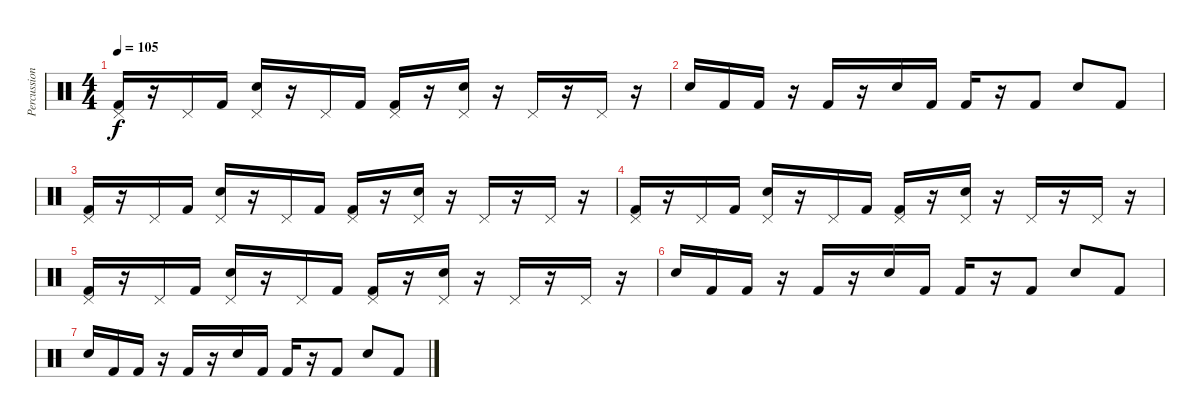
\track ("Percussion" "Percussion") {instrument percussion}
\staff {score}
\articulation defaults
\ts (4 4)
\tempo 105
\clef neutral
\ks c
("Pedal Hi-Hat (hit)" "Kick (hit) 2").16{dy f} r.16 "Pedal Hi-Hat (hit)".16 "Kick (hit) 2".16 ("Pedal Hi-Hat (hit)" "Electric Snare (hit)").16 r.16 "Pedal Hi-Hat (hit)".16 "Kick (hit) 2".16 ("Pedal Hi-Hat (hit)" "Kick (hit) 2").16 r.16 ("Pedal Hi-Hat (hit)" "Electric Snare (hit)").16 r.16 "Pedal Hi-Hat (hit)".16 r.16 "Pedal Hi-Hat (hit)".16 r.16 |
"Electric Snare (hit)".16 "Kick (hit) 2".16 "Kick (hit) 2".16 r.16 "Kick (hit) 2".16 r.16 "Electric Snare (hit)".16 "Kick (hit) 2".16 "Kick (hit) 2".16 r.16 "Kick (hit) 2".8 "Electric Snare (hit)".8 "Kick (hit) 2".8 |
("Pedal Hi-Hat (hit)" "Kick (hit) 2").16 r.16 "Pedal Hi-Hat (hit)".16 "Kick (hit) 2".16 ("Pedal Hi-Hat (hit)" "Electric Snare (hit)").16 r.16 "Pedal Hi-Hat (hit)".16 "Kick (hit) 2".16 ("Pedal Hi-Hat (hit)" "Kick (hit) 2").16 r.16 ("Pedal Hi-Hat (hit)" "Electric Snare (hit)").16 r.16 "Pedal Hi-Hat (hit)".16 r.16 "Pedal Hi-Hat (hit)".16 r.16 |
("Pedal Hi-Hat (hit)" "Kick (hit) 2").16 r.16 "Pedal Hi-Hat (hit)".16 "Kick (hit) 2".16 ("Pedal Hi-Hat (hit)" "Electric Snare (hit)").16 r.16 "Pedal Hi-Hat (hit)".16 "Kick (hit) 2".16 ("Pedal Hi-Hat (hit)" "Kick (hit) 2").16 r.16 ("Pedal Hi-Hat (hit)" "Electric Snare (hit)").16 r.16 "Pedal Hi-Hat (hit)".16 r.16 "Pedal Hi-Hat (hit)".16 r.16 |
("Pedal Hi-Hat (hit)" "Kick (hit) 2").16 r.16 "Pedal Hi-Hat (hit)".16 "Kick (hit) 2".16 ("Pedal Hi-Hat (hit)" "Electric Snare (hit)").16 r.16 "Pedal Hi-Hat (hit)".16 "Kick (hit) 2".16 ("Pedal Hi-Hat (hit)" "Kick (hit) 2").16 r.16 ("Pedal Hi-Hat (hit)" "Electric Snare (hit)").16 r.16 "Pedal Hi-Hat (hit)".16 r.16 "Pedal Hi-Hat (hit)".16 r.16 |
"Electric Snare (hit)".16 "Kick (hit) 2".16 "Kick (hit) 2".16 r.16 "Kick (hit) 2".16 r.16 "Electric Snare (hit)".16 "Kick (hit) 2".16 "Kick (hit) 2".16 r.16 "Kick (hit) 2".8 "Electric Snare (hit)".8 "Kick (hit) 2".8 |
"Electric Snare (hit)".16 "Kick (hit) 2".16 "Kick (hit) 2".16 r.16 "Kick (hit) 2".16 r.16 "Electric Snare (hit)".16 "Kick (hit) 2".16 "Kick (hit) 2".16 r.16 "Kick (hit) 2".8 "Electric Snare (hit)".8 "Kick (hit) 2".8
